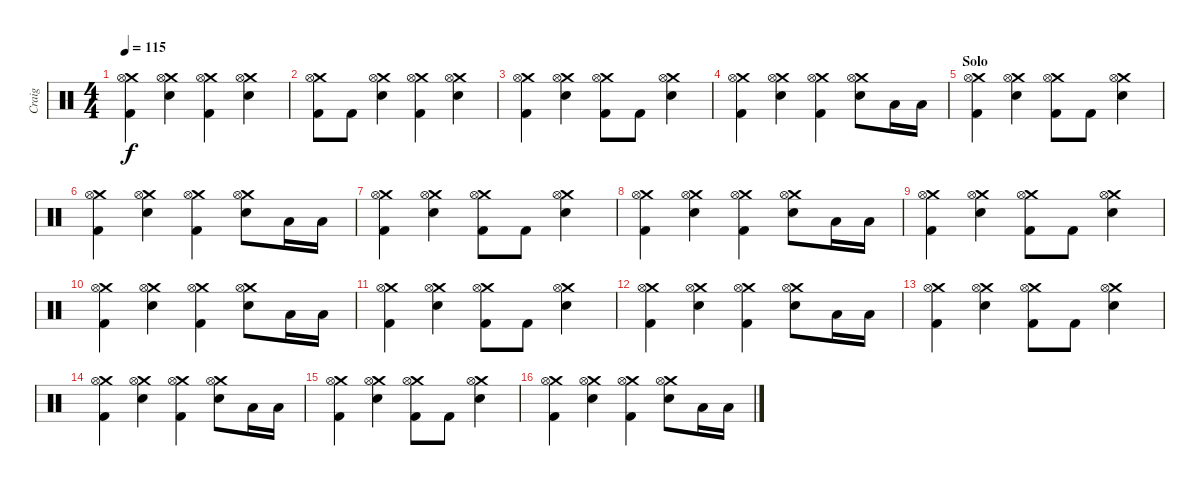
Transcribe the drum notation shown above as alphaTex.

\track ("Craig" "Craig") {instrument percussion}
\staff {score}
\articulation defaults
\ts (4 4)
\tempo 115
\clef neutral
\ks c
("Crash medium (hit)" "Hi-Hat (open)" "Kick (hit) 2").4{dy f} ("Crash medium (hit)" "Hi-Hat (open)" "Electric Snare (hit)").4 ("Crash medium (hit)" "Hi-Hat (open)" "Kick (hit) 2").4 ("Crash medium (hit)" "Hi-Hat (open)" "Electric Snare (hit)").4 |
("Crash medium (hit)" "Hi-Hat (open)" "Kick (hit) 2").8 "Kick (hit) 2".8 ("Crash medium (hit)" "Hi-Hat (open)" "Electric Snare (hit)").4 ("Crash medium (hit)" "Hi-Hat (open)" "Kick (hit) 2").4 ("Crash medium (hit)" "Hi-Hat (open)" "Electric Snare (hit)").4 |
("Crash medium (hit)" "Hi-Hat (open)" "Kick (hit) 2").4 ("Crash medium (hit)" "Hi-Hat (open)" "Electric Snare (hit)").4 ("Crash medium (hit)" "Hi-Hat (open)" "Kick (hit) 2").8 "Kick (hit) 2".8 ("Crash medium (hit)" "Hi-Hat (open)" "Electric Snare (hit)").4 |
("Crash medium (hit)" "Hi-Hat (open)" "Kick (hit) 2").4 ("Crash medium (hit)" "Hi-Hat (open)" "Electric Snare (hit)").4 ("Crash medium (hit)" "Hi-Hat (open)" "Kick (hit) 2").4 ("Crash medium (hit)" "Hi-Hat (open)" "Electric Snare (hit)").8 "Low Floor Tom (hit)".16 "Low Floor Tom (hit)".16 |
\section ("" "Solo")
("Crash medium (hit)" "Hi-Hat (open)" "Kick (hit) 2").4 ("Crash medium (hit)" "Hi-Hat (open)" "Electric Snare (hit)").4 ("Crash medium (hit)" "Hi-Hat (open)" "Kick (hit) 2").8 "Kick (hit) 2".8 ("Crash medium (hit)" "Hi-Hat (open)" "Electric Snare (hit)").4 |
("Crash medium (hit)" "Hi-Hat (open)" "Kick (hit) 2").4 ("Crash medium (hit)" "Hi-Hat (open)" "Electric Snare (hit)").4 ("Crash medium (hit)" "Hi-Hat (open)" "Kick (hit) 2").4 ("Crash medium (hit)" "Hi-Hat (open)" "Electric Snare (hit)").8 "Low Floor Tom (hit)".16 "Low Floor Tom (hit)".16 |
("Crash medium (hit)" "Hi-Hat (open)" "Kick (hit) 2").4 ("Crash medium (hit)" "Hi-Hat (open)" "Electric Snare (hit)").4 ("Crash medium (hit)" "Hi-Hat (open)" "Kick (hit) 2").8 "Kick (hit) 2".8 ("Crash medium (hit)" "Hi-Hat (open)" "Electric Snare (hit)").4 |
("Crash medium (hit)" "Hi-Hat (open)" "Kick (hit) 2").4 ("Crash medium (hit)" "Hi-Hat (open)" "Electric Snare (hit)").4 ("Crash medium (hit)" "Hi-Hat (open)" "Kick (hit) 2").4 ("Crash medium (hit)" "Hi-Hat (open)" "Electric Snare (hit)").8 "Low Floor Tom (hit)".16 "Low Floor Tom (hit)".16 |
("Crash medium (hit)" "Hi-Hat (open)" "Kick (hit) 2").4 ("Crash medium (hit)" "Hi-Hat (open)" "Electric Snare (hit)").4 ("Crash medium (hit)" "Hi-Hat (open)" "Kick (hit) 2").8 "Kick (hit) 2".8 ("Crash medium (hit)" "Hi-Hat (open)" "Electric Snare (hit)").4 |
("Crash medium (hit)" "Hi-Hat (open)" "Kick (hit) 2").4 ("Crash medium (hit)" "Hi-Hat (open)" "Electric Snare (hit)").4 ("Crash medium (hit)" "Hi-Hat (open)" "Kick (hit) 2").4 ("Crash medium (hit)" "Hi-Hat (open)" "Electric Snare (hit)").8 "Low Floor Tom (hit)".16 "Low Floor Tom (hit)".16 |
("Crash medium (hit)" "Hi-Hat (open)" "Kick (hit) 2").4 ("Crash medium (hit)" "Hi-Hat (open)" "Electric Snare (hit)").4 ("Crash medium (hit)" "Hi-Hat (open)" "Kick (hit) 2").8 "Kick (hit) 2".8 ("Crash medium (hit)" "Hi-Hat (open)" "Electric Snare (hit)").4 |
("Crash medium (hit)" "Hi-Hat (open)" "Kick (hit) 2").4 ("Crash medium (hit)" "Hi-Hat (open)" "Electric Snare (hit)").4 ("Crash medium (hit)" "Hi-Hat (open)" "Kick (hit) 2").4 ("Crash medium (hit)" "Hi-Hat (open)" "Electric Snare (hit)").8 "Low Floor Tom (hit)".16 "Low Floor Tom (hit)".16 |
("Crash medium (hit)" "Hi-Hat (open)" "Kick (hit) 2").4 ("Crash medium (hit)" "Hi-Hat (open)" "Electric Snare (hit)").4 ("Crash medium (hit)" "Hi-Hat (open)" "Kick (hit) 2").8 "Kick (hit) 2".8 ("Crash medium (hit)" "Hi-Hat (open)" "Electric Snare (hit)").4 |
("Crash medium (hit)" "Hi-Hat (open)" "Kick (hit) 2").4 ("Crash medium (hit)" "Hi-Hat (open)" "Electric Snare (hit)").4 ("Crash medium (hit)" "Hi-Hat (open)" "Kick (hit) 2").4 ("Crash medium (hit)" "Hi-Hat (open)" "Electric Snare (hit)").8 "Low Floor Tom (hit)".16 "Low Floor Tom (hit)".16 |
("Crash medium (hit)" "Hi-Hat (open)" "Kick (hit) 2").4 ("Crash medium (hit)" "Hi-Hat (open)" "Electric Snare (hit)").4 ("Crash medium (hit)" "Hi-Hat (open)" "Kick (hit) 2").8 "Kick (hit) 2".8 ("Crash medium (hit)" "Hi-Hat (open)" "Electric Snare (hit)").4 |
("Crash medium (hit)" "Hi-Hat (open)" "Kick (hit) 2").4 ("Crash medium (hit)" "Hi-Hat (open)" "Electric Snare (hit)").4 ("Crash medium (hit)" "Hi-Hat (open)" "Kick (hit) 2").4 ("Crash medium (hit)" "Hi-Hat (open)" "Electric Snare (hit)").8 "Low Floor Tom (hit)".16 "Low Floor Tom (hit)".16
